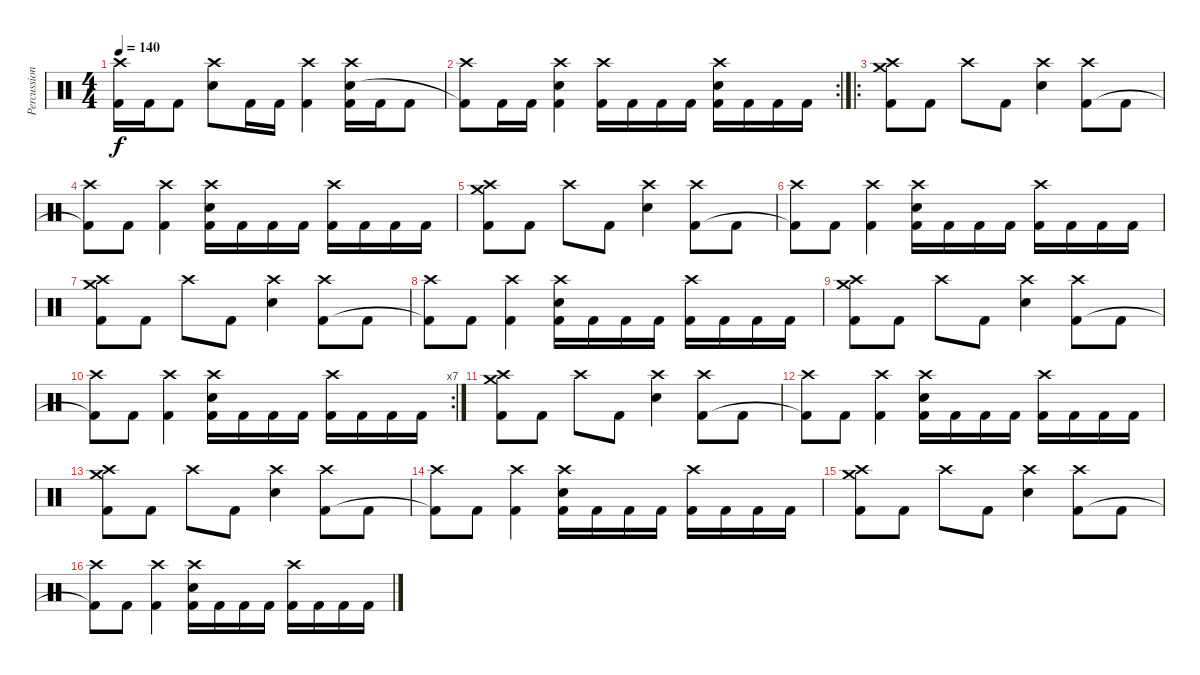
\track ("Percussion" "Percussion") {instrument percussion}
\staff {score}
\articulation defaults
\ts (4 4)
\tempo 140
\clef neutral
\ks c
("Crash high (hit)" "Kick (hit) 2").16{dy f} "Kick (hit) 2".16 "Kick (hit) 2".8 ("Crash high (hit)" "Electric Snare (hit)").8 "Kick (hit) 2".16 "Kick (hit) 2".16 ("Crash high (hit)" "Kick (hit) 2").4 ("Crash high (hit)" "Electric Snare (hit)" "Kick (hit) 2").16 "Kick (hit) 2".16 "Kick (hit) 2".8 |
\rc 2
("Crash high (hit)" "Kick (hit) 2"{t}).8 "Kick (hit) 2".16 "Kick (hit) 2".16 ("Crash high (hit)" "Electric Snare (hit)" "Kick (hit) 2").4 ("Crash high (hit)" "Kick (hit) 2").16 "Kick (hit) 2".16 "Kick (hit) 2".16 "Kick (hit) 2".16 ("Crash high (hit)" "Electric Snare (hit)" "Kick (hit) 2").16 "Kick (hit) 2".16 "Kick (hit) 2".16 "Kick (hit) 2".16 |
\ro
("Crash medium (hit)" "Crash high (hit)" "Kick (hit) 2").8 "Kick (hit) 2".8 "Crash high (hit)".8 "Kick (hit) 2".8 ("Crash high (hit)" "Electric Snare (hit)").4 ("Crash high (hit)" "Kick (hit) 2").8 "Kick (hit) 2".8 |
("Crash high (hit)" "Kick (hit) 2"{t}).8 "Kick (hit) 2".8 ("Crash high (hit)" "Kick (hit) 2").4 ("Crash high (hit)" "Electric Snare (hit)" "Kick (hit) 2").16 "Kick (hit) 2".16 "Kick (hit) 2".16 "Kick (hit) 2".16 ("Crash high (hit)" "Kick (hit) 2").16 "Kick (hit) 2".16 "Kick (hit) 2".16 "Kick (hit) 2".16 |
("Crash medium (hit)" "Crash high (hit)" "Kick (hit) 2").8 "Kick (hit) 2".8 "Crash high (hit)".8 "Kick (hit) 2".8 ("Crash high (hit)" "Electric Snare (hit)").4 ("Crash high (hit)" "Kick (hit) 2").8 "Kick (hit) 2".8 |
("Crash high (hit)" "Kick (hit) 2"{t}).8 "Kick (hit) 2".8 ("Crash high (hit)" "Kick (hit) 2").4 ("Crash high (hit)" "Electric Snare (hit)" "Kick (hit) 2").16 "Kick (hit) 2".16 "Kick (hit) 2".16 "Kick (hit) 2".16 ("Crash high (hit)" "Kick (hit) 2").16 "Kick (hit) 2".16 "Kick (hit) 2".16 "Kick (hit) 2".16 |
("Crash medium (hit)" "Crash high (hit)" "Kick (hit) 2").8 "Kick (hit) 2".8 "Crash high (hit)".8 "Kick (hit) 2".8 ("Crash high (hit)" "Electric Snare (hit)").4 ("Crash high (hit)" "Kick (hit) 2").8 "Kick (hit) 2".8 |
("Crash high (hit)" "Kick (hit) 2"{t}).8 "Kick (hit) 2".8 ("Crash high (hit)" "Kick (hit) 2").4 ("Crash high (hit)" "Electric Snare (hit)" "Kick (hit) 2").16 "Kick (hit) 2".16 "Kick (hit) 2".16 "Kick (hit) 2".16 ("Crash high (hit)" "Kick (hit) 2").16 "Kick (hit) 2".16 "Kick (hit) 2".16 "Kick (hit) 2".16 |
("Crash medium (hit)" "Crash high (hit)" "Kick (hit) 2").8 "Kick (hit) 2".8 "Crash high (hit)".8 "Kick (hit) 2".8 ("Crash high (hit)" "Electric Snare (hit)").4 ("Crash high (hit)" "Kick (hit) 2").8 "Kick (hit) 2".8 |
\rc 7
("Crash high (hit)" "Kick (hit) 2"{t}).8 "Kick (hit) 2".8 ("Crash high (hit)" "Kick (hit) 2").4 ("Crash high (hit)" "Electric Snare (hit)" "Kick (hit) 2").16 "Kick (hit) 2".16 "Kick (hit) 2".16 "Kick (hit) 2".16 ("Crash high (hit)" "Kick (hit) 2").16 "Kick (hit) 2".16 "Kick (hit) 2".16 "Kick (hit) 2".16 |
("Crash medium (hit)" "Crash high (hit)" "Kick (hit) 2").8 "Kick (hit) 2".8 "Crash high (hit)".8 "Kick (hit) 2".8 ("Crash high (hit)" "Electric Snare (hit)").4 ("Crash high (hit)" "Kick (hit) 2").8 "Kick (hit) 2".8 |
("Crash high (hit)" "Kick (hit) 2"{t}).8 "Kick (hit) 2".8 ("Crash high (hit)" "Kick (hit) 2").4 ("Crash high (hit)" "Electric Snare (hit)" "Kick (hit) 2").16 "Kick (hit) 2".16 "Kick (hit) 2".16 "Kick (hit) 2".16 ("Crash high (hit)" "Kick (hit) 2").16 "Kick (hit) 2".16 "Kick (hit) 2".16 "Kick (hit) 2".16 |
("Crash medium (hit)" "Crash high (hit)" "Kick (hit) 2").8 "Kick (hit) 2".8 "Crash high (hit)".8 "Kick (hit) 2".8 ("Crash high (hit)" "Electric Snare (hit)").4 ("Crash high (hit)" "Kick (hit) 2").8 "Kick (hit) 2".8 |
("Crash high (hit)" "Kick (hit) 2"{t}).8 "Kick (hit) 2".8 ("Crash high (hit)" "Kick (hit) 2").4 ("Crash high (hit)" "Electric Snare (hit)" "Kick (hit) 2").16 "Kick (hit) 2".16 "Kick (hit) 2".16 "Kick (hit) 2".16 ("Crash high (hit)" "Kick (hit) 2").16 "Kick (hit) 2".16 "Kick (hit) 2".16 "Kick (hit) 2".16 |
("Crash medium (hit)" "Crash high (hit)" "Kick (hit) 2").8 "Kick (hit) 2".8 "Crash high (hit)".8 "Kick (hit) 2".8 ("Crash high (hit)" "Electric Snare (hit)").4 ("Crash high (hit)" "Kick (hit) 2").8 "Kick (hit) 2".8 |
("Crash high (hit)" "Kick (hit) 2"{t}).8 "Kick (hit) 2".8 ("Crash high (hit)" "Kick (hit) 2").4 ("Crash high (hit)" "Electric Snare (hit)" "Kick (hit) 2").16 "Kick (hit) 2".16 "Kick (hit) 2".16 "Kick (hit) 2".16 ("Crash high (hit)" "Kick (hit) 2").16 "Kick (hit) 2".16 "Kick (hit) 2".16 "Kick (hit) 2".16
